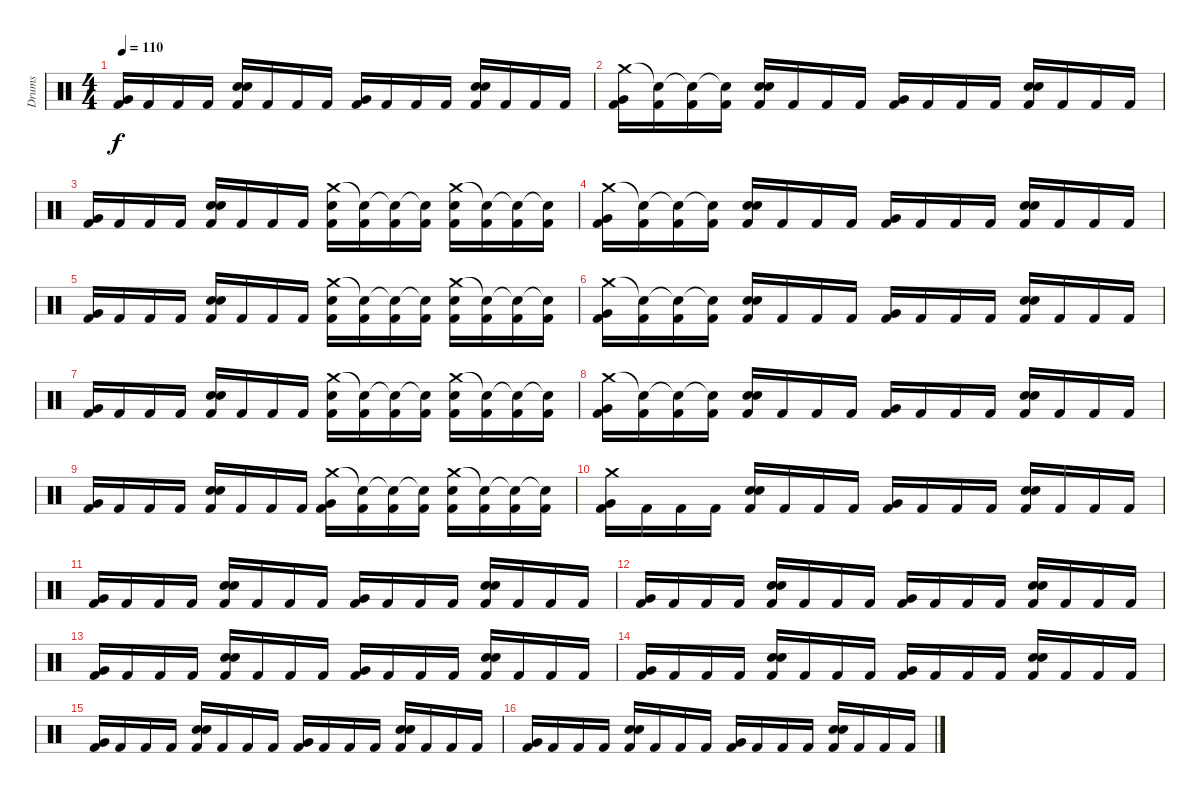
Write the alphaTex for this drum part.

\track ("Drums" "Drums") {instrument percussion}
\staff {score}
\articulation defaults
\ts (4 4)
\tempo 110
\clef neutral
\ks c
("Very Low Tom (hit)" "Kick (hit) 2").16{dy f} "Kick (hit) 2".16 "Kick (hit) 2".16 "Kick (hit) 2".16 ("Electric Snare (hit)" "Electric Snare (hit)" "Kick (hit) 2").16 "Kick (hit) 2".16 "Kick (hit) 2".16 "Kick (hit) 2".16 ("Very Low Tom (hit)" "Kick (hit) 2").16 "Kick (hit) 2".16 "Kick (hit) 2".16 "Kick (hit) 2".16 ("Electric Snare (hit)" "Electric Snare (hit)" "Kick (hit) 2").16 "Kick (hit) 2".16 "Kick (hit) 2".16 "Kick (hit) 2".16 |
("Crash medium (hit)" "Very Low Tom (hit)" "Kick (hit) 2").16 ("Snare (hit)"{t} "Kick (hit) 2").16 ("Snare (hit)"{t} "Kick (hit) 2").16 ("Snare (hit)"{t} "Kick (hit) 2").16 ("Electric Snare (hit)" "Electric Snare (hit)" "Kick (hit) 2").16 "Kick (hit) 2".16 "Kick (hit) 2".16 "Kick (hit) 2".16 ("Very Low Tom (hit)" "Kick (hit) 2").16 "Kick (hit) 2".16 "Kick (hit) 2".16 "Kick (hit) 2".16 ("Electric Snare (hit)" "Electric Snare (hit)" "Kick (hit) 2").16 "Kick (hit) 2".16 "Kick (hit) 2".16 "Kick (hit) 2".16 |
("Very Low Tom (hit)" "Kick (hit) 2").16 "Kick (hit) 2".16 "Kick (hit) 2".16 "Kick (hit) 2".16 ("Electric Snare (hit)" "Electric Snare (hit)" "Kick (hit) 2").16 "Kick (hit) 2".16 "Kick (hit) 2".16 "Kick (hit) 2".16 ("Crash medium (hit)" "Electric Snare (hit)" "Kick (hit) 2").16 ("Snare (hit)"{t} "Kick (hit) 2").16 ("Snare (hit)"{t} "Kick (hit) 2").16 ("Snare (hit)"{t} "Kick (hit) 2").16 ("Crash medium (hit)" "Electric Snare (hit)" "Kick (hit) 2").16 ("Snare (hit)"{t} "Kick (hit) 2").16 ("Snare (hit)"{t} "Kick (hit) 2").16 ("Snare (hit)"{t} "Kick (hit) 2").16 |
("Crash medium (hit)" "Very Low Tom (hit)" "Kick (hit) 2").16 ("Snare (hit)"{t} "Kick (hit) 2").16 ("Snare (hit)"{t} "Kick (hit) 2").16 ("Snare (hit)"{t} "Kick (hit) 2").16 ("Electric Snare (hit)" "Electric Snare (hit)" "Kick (hit) 2").16 "Kick (hit) 2".16 "Kick (hit) 2".16 "Kick (hit) 2".16 ("Very Low Tom (hit)" "Kick (hit) 2").16 "Kick (hit) 2".16 "Kick (hit) 2".16 "Kick (hit) 2".16 ("Electric Snare (hit)" "Electric Snare (hit)" "Kick (hit) 2").16 "Kick (hit) 2".16 "Kick (hit) 2".16 "Kick (hit) 2".16 |
("Very Low Tom (hit)" "Kick (hit) 2").16 "Kick (hit) 2".16 "Kick (hit) 2".16 "Kick (hit) 2".16 ("Electric Snare (hit)" "Electric Snare (hit)" "Kick (hit) 2").16 "Kick (hit) 2".16 "Kick (hit) 2".16 "Kick (hit) 2".16 ("Crash medium (hit)" "Electric Snare (hit)" "Kick (hit) 2").16 ("Snare (hit)"{t} "Kick (hit) 2").16 ("Snare (hit)"{t} "Kick (hit) 2").16 ("Snare (hit)"{t} "Kick (hit) 2").16 ("Crash medium (hit)" "Electric Snare (hit)" "Kick (hit) 2").16 ("Snare (hit)"{t} "Kick (hit) 2").16 ("Snare (hit)"{t} "Kick (hit) 2").16 ("Snare (hit)"{t} "Kick (hit) 2").16 |
("Crash medium (hit)" "Very Low Tom (hit)" "Kick (hit) 2").16 ("Snare (hit)"{t} "Kick (hit) 2").16 ("Snare (hit)"{t} "Kick (hit) 2").16 ("Snare (hit)"{t} "Kick (hit) 2").16 ("Electric Snare (hit)" "Electric Snare (hit)" "Kick (hit) 2").16 "Kick (hit) 2".16 "Kick (hit) 2".16 "Kick (hit) 2".16 ("Very Low Tom (hit)" "Kick (hit) 2").16 "Kick (hit) 2".16 "Kick (hit) 2".16 "Kick (hit) 2".16 ("Electric Snare (hit)" "Electric Snare (hit)" "Kick (hit) 2").16 "Kick (hit) 2".16 "Kick (hit) 2".16 "Kick (hit) 2".16 |
("Very Low Tom (hit)" "Kick (hit) 2").16 "Kick (hit) 2".16 "Kick (hit) 2".16 "Kick (hit) 2".16 ("Electric Snare (hit)" "Electric Snare (hit)" "Kick (hit) 2").16 "Kick (hit) 2".16 "Kick (hit) 2".16 "Kick (hit) 2".16 ("Crash medium (hit)" "Electric Snare (hit)" "Kick (hit) 2").16 ("Snare (hit)"{t} "Kick (hit) 2").16 ("Snare (hit)"{t} "Kick (hit) 2").16 ("Snare (hit)"{t} "Kick (hit) 2").16 ("Crash medium (hit)" "Electric Snare (hit)" "Kick (hit) 2").16 ("Snare (hit)"{t} "Kick (hit) 2").16 ("Snare (hit)"{t} "Kick (hit) 2").16 ("Snare (hit)"{t} "Kick (hit) 2").16 |
("Crash medium (hit)" "Very Low Tom (hit)" "Kick (hit) 2").16 ("Snare (hit)"{t} "Kick (hit) 2").16 ("Snare (hit)"{t} "Kick (hit) 2").16 ("Snare (hit)"{t} "Kick (hit) 2").16 ("Electric Snare (hit)" "Electric Snare (hit)" "Kick (hit) 2").16 "Kick (hit) 2".16 "Kick (hit) 2".16 "Kick (hit) 2".16 ("Very Low Tom (hit)" "Kick (hit) 2").16 "Kick (hit) 2".16 "Kick (hit) 2".16 "Kick (hit) 2".16 ("Electric Snare (hit)" "Electric Snare (hit)" "Kick (hit) 2").16 "Kick (hit) 2".16 "Kick (hit) 2".16 "Kick (hit) 2".16 |
("Very Low Tom (hit)" "Kick (hit) 2").16 "Kick (hit) 2".16 "Kick (hit) 2".16 "Kick (hit) 2".16 ("Electric Snare (hit)" "Electric Snare (hit)" "Kick (hit) 2").16 "Kick (hit) 2".16 "Kick (hit) 2".16 "Kick (hit) 2".16 ("Crash medium (hit)" "Very Low Tom (hit)" "Kick (hit) 2").16 ("Snare (hit)"{t} "Kick (hit) 2").16 ("Snare (hit)"{t} "Kick (hit) 2").16 ("Snare (hit)"{t} "Kick (hit) 2").16 ("Crash medium (hit)" "Electric Snare (hit)" "Kick (hit) 2").16 ("Snare (hit)"{t} "Kick (hit) 2").16 ("Snare (hit)"{t} "Kick (hit) 2").16 ("Snare (hit)"{t} "Kick (hit) 2").16 |
("Crash medium (hit)" "Very Low Tom (hit)" "Kick (hit) 2").16 "Kick (hit) 2".16 "Kick (hit) 2".16 "Kick (hit) 2".16 ("Electric Snare (hit)" "Electric Snare (hit)" "Kick (hit) 2").16 "Kick (hit) 2".16 "Kick (hit) 2".16 "Kick (hit) 2".16 ("Very Low Tom (hit)" "Kick (hit) 2").16 "Kick (hit) 2".16 "Kick (hit) 2".16 "Kick (hit) 2".16 ("Electric Snare (hit)" "Electric Snare (hit)" "Kick (hit) 2").16 "Kick (hit) 2".16 "Kick (hit) 2".16 "Kick (hit) 2".16 |
("Very Low Tom (hit)" "Kick (hit) 2").16 "Kick (hit) 2".16 "Kick (hit) 2".16 "Kick (hit) 2".16 ("Electric Snare (hit)" "Electric Snare (hit)" "Kick (hit) 2").16 "Kick (hit) 2".16 "Kick (hit) 2".16 "Kick (hit) 2".16 ("Very Low Tom (hit)" "Kick (hit) 2").16 "Kick (hit) 2".16 "Kick (hit) 2".16 "Kick (hit) 2".16 ("Electric Snare (hit)" "Electric Snare (hit)" "Kick (hit) 2").16 "Kick (hit) 2".16 "Kick (hit) 2".16 "Kick (hit) 2".16 |
("Very Low Tom (hit)" "Kick (hit) 2").16 "Kick (hit) 2".16 "Kick (hit) 2".16 "Kick (hit) 2".16 ("Electric Snare (hit)" "Electric Snare (hit)" "Kick (hit) 2").16 "Kick (hit) 2".16 "Kick (hit) 2".16 "Kick (hit) 2".16 ("Very Low Tom (hit)" "Kick (hit) 2").16 "Kick (hit) 2".16 "Kick (hit) 2".16 "Kick (hit) 2".16 ("Electric Snare (hit)" "Electric Snare (hit)" "Kick (hit) 2").16 "Kick (hit) 2".16 "Kick (hit) 2".16 "Kick (hit) 2".16 |
("Very Low Tom (hit)" "Kick (hit) 2").16 "Kick (hit) 2".16 "Kick (hit) 2".16 "Kick (hit) 2".16 ("Electric Snare (hit)" "Electric Snare (hit)" "Kick (hit) 2").16 "Kick (hit) 2".16 "Kick (hit) 2".16 "Kick (hit) 2".16 ("Very Low Tom (hit)" "Kick (hit) 2").16 "Kick (hit) 2".16 "Kick (hit) 2".16 "Kick (hit) 2".16 ("Electric Snare (hit)" "Electric Snare (hit)" "Kick (hit) 2").16 "Kick (hit) 2".16 "Kick (hit) 2".16 "Kick (hit) 2".16 |
("Very Low Tom (hit)" "Kick (hit) 2").16 "Kick (hit) 2".16 "Kick (hit) 2".16 "Kick (hit) 2".16 ("Electric Snare (hit)" "Electric Snare (hit)" "Kick (hit) 2").16 "Kick (hit) 2".16 "Kick (hit) 2".16 "Kick (hit) 2".16 ("Very Low Tom (hit)" "Kick (hit) 2").16 "Kick (hit) 2".16 "Kick (hit) 2".16 "Kick (hit) 2".16 ("Electric Snare (hit)" "Electric Snare (hit)" "Kick (hit) 2").16 "Kick (hit) 2".16 "Kick (hit) 2".16 "Kick (hit) 2".16 |
("Very Low Tom (hit)" "Kick (hit) 2").16 "Kick (hit) 2".16 "Kick (hit) 2".16 "Kick (hit) 2".16 ("Electric Snare (hit)" "Electric Snare (hit)" "Kick (hit) 2").16 "Kick (hit) 2".16 "Kick (hit) 2".16 "Kick (hit) 2".16 ("Very Low Tom (hit)" "Kick (hit) 2").16 "Kick (hit) 2".16 "Kick (hit) 2".16 "Kick (hit) 2".16 ("Electric Snare (hit)" "Electric Snare (hit)" "Kick (hit) 2").16 "Kick (hit) 2".16 "Kick (hit) 2".16 "Kick (hit) 2".16 |
("Very Low Tom (hit)" "Kick (hit) 2").16 "Kick (hit) 2".16 "Kick (hit) 2".16 "Kick (hit) 2".16 ("Electric Snare (hit)" "Electric Snare (hit)" "Kick (hit) 2").16 "Kick (hit) 2".16 "Kick (hit) 2".16 "Kick (hit) 2".16 ("Very Low Tom (hit)" "Kick (hit) 2").16 "Kick (hit) 2".16 "Kick (hit) 2".16 "Kick (hit) 2".16 ("Electric Snare (hit)" "Electric Snare (hit)" "Kick (hit) 2").16 "Kick (hit) 2".16 "Kick (hit) 2".16 "Kick (hit) 2".16
